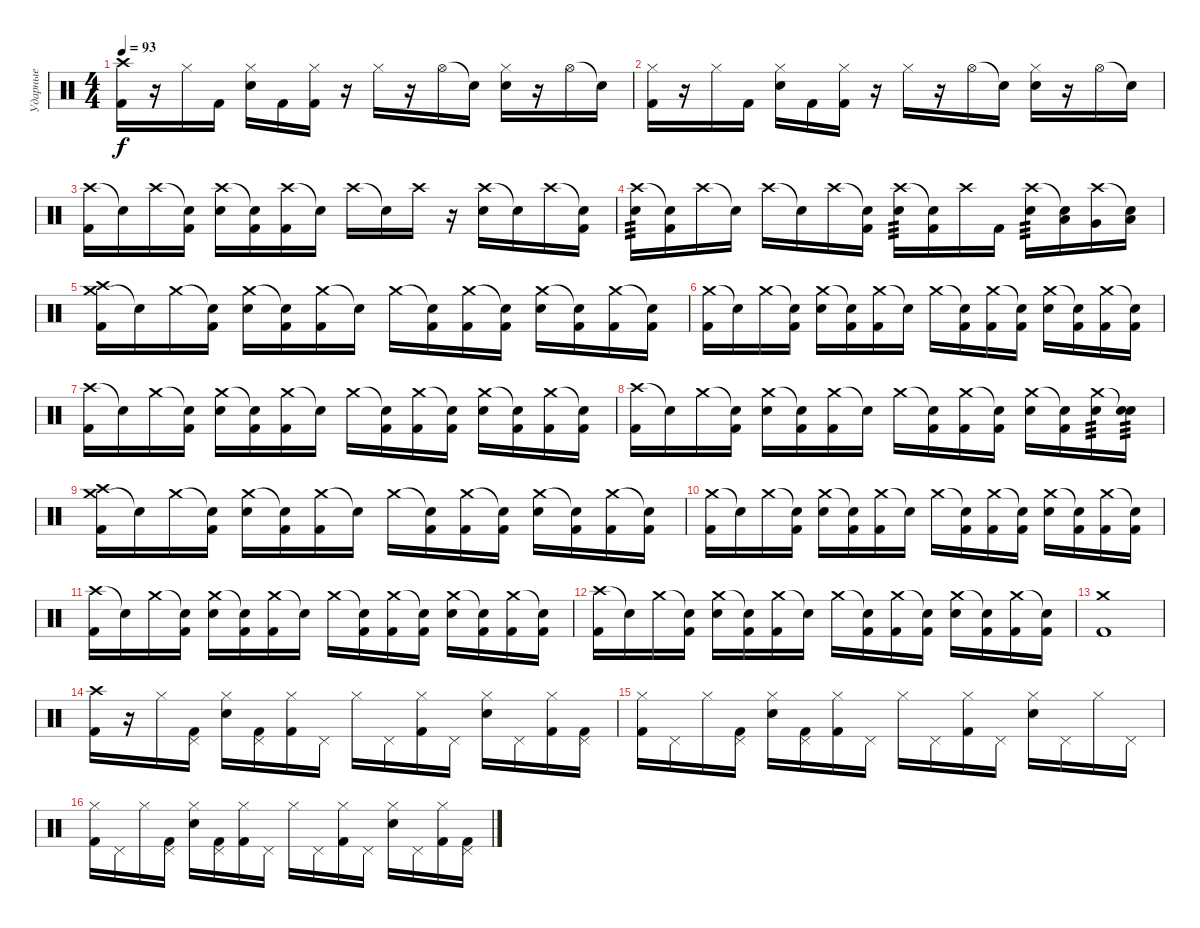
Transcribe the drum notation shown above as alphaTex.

\track ("Ударные" "Ударные") {instrument percussion}
\staff {score}
\articulation defaults
\ts (4 4)
\tempo 93
\clef neutral
\ks c
("Crash high (hit)" "Kick (hit) 2").16{dy f} r.16 "Hi-Hat (closed)".16 "Kick (hit) 2".16 ("Hi-Hat (closed)" "Electric Snare (hit)").16 "Kick (hit) 2".16 ("Hi-Hat (closed)" "Kick (hit) 2").16 r.16 "Hi-Hat (closed)".16 r.16 "Hi-Hat (open)".16 "Snare (hit)"{t}.16 ("Hi-Hat (closed)" "Electric Snare (hit)").16 r.16 "Hi-Hat (open)".16 "Snare (hit)"{t}.16 |
("Hi-Hat (closed)" "Kick (hit) 2").16 r.16 "Hi-Hat (closed)".16 "Kick (hit) 2".16 ("Hi-Hat (closed)" "Electric Snare (hit)").16 "Kick (hit) 2".16 ("Hi-Hat (closed)" "Kick (hit) 2").16 r.16 "Hi-Hat (closed)".16 r.16 "Hi-Hat (open)".16 "Snare (hit)"{t}.16 ("Hi-Hat (closed)" "Electric Snare (hit)").16 r.16 "Hi-Hat (open)".16 "Snare (hit)"{t}.16 |
("Crash high (hit)" "Kick (hit) 2").16 "Snare (hit)"{t}.16 "Crash high (hit)".16 ("Snare (hit)"{t} "Kick (hit) 2").16 ("Crash high (hit)" "Electric Snare (hit)").16 ("Snare (hit)"{t} "Kick (hit) 2").16 ("Crash high (hit)" "Kick (hit) 2").16 "Snare (hit)"{t}.16 "Crash high (hit)".16 "Snare (hit)"{t}.16 "Crash high (hit)".16 r.16 ("Crash high (hit)" "Electric Snare (hit)").16 "Snare (hit)"{t}.16 "Crash high (hit)".16 ("Snare (hit)"{t} "Kick (hit) 2").16 |
("Crash high (hit)" "Electric Snare (hit)").16{tp 3} ("Snare (hit)"{t} "Kick (hit) 2").16 "Crash high (hit)".16 "Snare (hit)"{t}.16 "Crash high (hit)".16 "Snare (hit)"{t}.16 "Crash high (hit)".16 ("Snare (hit)"{t} "Kick (hit) 2").16 ("Crash high (hit)" "Electric Snare (hit)").16{tp 3} ("Snare (hit)"{t} "Kick (hit) 2").16 "Crash high (hit)".16 "Kick (hit) 2".16 ("Crash high (hit)" "Electric Snare (hit)").16{tp 3} ("Snare (hit)"{t} "Low Tom (hit)").16 ("Crash high (hit)" "Very Low Tom (hit)").16 ("Snare (hit)"{t} "Low Floor Tom (hit)").16 |
("Crash medium (hit)" "Crash high (hit)" "Kick (hit) 2").16 "Snare (hit)"{t}.16 "Crash medium (hit)".16 ("Snare (hit)"{t} "Kick (hit) 2").16 ("Crash medium (hit)" "Electric Snare (hit)").16 ("Snare (hit)"{t} "Kick (hit) 2").16 ("Crash medium (hit)" "Kick (hit) 2").16 "Snare (hit)"{t}.16 "Crash medium (hit)".16 ("Snare (hit)"{t} "Kick (hit) 2").16 ("Crash medium (hit)" "Kick (hit) 2").16 ("Snare (hit)"{t} "Kick (hit) 2").16 ("Crash medium (hit)" "Electric Snare (hit)").16 ("Snare (hit)"{t} "Kick (hit) 2").16 ("Crash medium (hit)" "Kick (hit) 2").16 ("Snare (hit)"{t} "Kick (hit) 2").16 |
("Crash medium (hit)" "Kick (hit) 2").16 "Snare (hit)"{t}.16 "Crash medium (hit)".16 ("Snare (hit)"{t} "Kick (hit) 2").16 ("Crash medium (hit)" "Electric Snare (hit)").16 ("Snare (hit)"{t} "Kick (hit) 2").16 ("Crash medium (hit)" "Kick (hit) 2").16 "Snare (hit)"{t}.16 "Crash medium (hit)".16 ("Snare (hit)"{t} "Kick (hit) 2").16 ("Crash medium (hit)" "Kick (hit) 2").16 ("Snare (hit)"{t} "Kick (hit) 2").16 ("Crash medium (hit)" "Electric Snare (hit)").16 ("Snare (hit)"{t} "Kick (hit) 2").16 ("Crash medium (hit)" "Kick (hit) 2").16 ("Snare (hit)"{t} "Kick (hit) 2").16 |
("Crash high (hit)" "Kick (hit) 2").16 "Snare (hit)"{t}.16 "Crash medium (hit)".16 ("Snare (hit)"{t} "Kick (hit) 2").16 ("Crash medium (hit)" "Electric Snare (hit)").16 ("Snare (hit)"{t} "Kick (hit) 2").16 ("Crash medium (hit)" "Kick (hit) 2").16 "Snare (hit)"{t}.16 "Crash medium (hit)".16 ("Snare (hit)"{t} "Kick (hit) 2").16 ("Crash medium (hit)" "Kick (hit) 2").16 ("Snare (hit)"{t} "Kick (hit) 2").16 ("Crash medium (hit)" "Electric Snare (hit)").16 ("Snare (hit)"{t} "Kick (hit) 2").16 ("Crash medium (hit)" "Kick (hit) 2").16 ("Snare (hit)"{t} "Kick (hit) 2").16 |
("Crash high (hit)" "Kick (hit) 2").16 "Snare (hit)"{t}.16 "Crash medium (hit)".16 ("Snare (hit)"{t} "Kick (hit) 2").16 ("Crash medium (hit)" "Electric Snare (hit)").16 ("Snare (hit)"{t} "Kick (hit) 2").16 ("Crash medium (hit)" "Kick (hit) 2").16 "Snare (hit)"{t}.16 "Crash medium (hit)".16 ("Snare (hit)"{t} "Kick (hit) 2").16 ("Crash medium (hit)" "Kick (hit) 2").16 ("Snare (hit)"{t} "Kick (hit) 2").16 ("Crash medium (hit)" "Electric Snare (hit)").16 ("Snare (hit)"{t} "Kick (hit) 2").16 ("Crash medium (hit)" "Electric Snare (hit)").16{tp 3} ("Snare (hit)"{t} "Electric Snare (hit)").16{tp 3} |
("Crash medium (hit)" "Crash high (hit)" "Kick (hit) 2").16 "Snare (hit)"{t}.16 "Crash medium (hit)".16 ("Snare (hit)"{t} "Kick (hit) 2").16 ("Crash medium (hit)" "Electric Snare (hit)").16 ("Snare (hit)"{t} "Kick (hit) 2").16 ("Crash medium (hit)" "Kick (hit) 2").16 "Snare (hit)"{t}.16 "Crash medium (hit)".16 ("Snare (hit)"{t} "Kick (hit) 2").16 ("Crash medium (hit)" "Kick (hit) 2").16 ("Snare (hit)"{t} "Kick (hit) 2").16 ("Crash medium (hit)" "Electric Snare (hit)").16 ("Snare (hit)"{t} "Kick (hit) 2").16 ("Crash medium (hit)" "Kick (hit) 2").16 ("Snare (hit)"{t} "Kick (hit) 2").16 |
("Crash medium (hit)" "Kick (hit) 2").16 "Snare (hit)"{t}.16 "Crash medium (hit)".16 ("Snare (hit)"{t} "Kick (hit) 2").16 ("Crash medium (hit)" "Electric Snare (hit)").16 ("Snare (hit)"{t} "Kick (hit) 2").16 ("Crash medium (hit)" "Kick (hit) 2").16 "Snare (hit)"{t}.16 "Crash medium (hit)".16 ("Snare (hit)"{t} "Kick (hit) 2").16 ("Crash medium (hit)" "Kick (hit) 2").16 ("Snare (hit)"{t} "Kick (hit) 2").16 ("Crash medium (hit)" "Electric Snare (hit)").16 ("Snare (hit)"{t} "Kick (hit) 2").16 ("Crash medium (hit)" "Kick (hit) 2").16 ("Snare (hit)"{t} "Kick (hit) 2").16 |
("Crash high (hit)" "Kick (hit) 2").16 "Snare (hit)"{t}.16 "Crash medium (hit)".16 ("Snare (hit)"{t} "Kick (hit) 2").16 ("Crash medium (hit)" "Electric Snare (hit)").16 ("Snare (hit)"{t} "Kick (hit) 2").16 ("Crash medium (hit)" "Kick (hit) 2").16 "Snare (hit)"{t}.16 "Crash medium (hit)".16 ("Snare (hit)"{t} "Kick (hit) 2").16 ("Crash medium (hit)" "Kick (hit) 2").16 ("Snare (hit)"{t} "Kick (hit) 2").16 ("Crash medium (hit)" "Electric Snare (hit)").16 ("Snare (hit)"{t} "Kick (hit) 2").16 ("Crash medium (hit)" "Kick (hit) 2").16 ("Snare (hit)"{t} "Kick (hit) 2").16 |
("Crash high (hit)" "Kick (hit) 2").16 "Snare (hit)"{t}.16 "Crash medium (hit)".16 ("Snare (hit)"{t} "Kick (hit) 2").16 ("Crash medium (hit)" "Electric Snare (hit)").16 ("Snare (hit)"{t} "Kick (hit) 2").16 ("Crash medium (hit)" "Kick (hit) 2").16 "Snare (hit)"{t}.16 "Crash medium (hit)".16 ("Snare (hit)"{t} "Kick (hit) 2").16 ("Crash medium (hit)" "Kick (hit) 2").16 ("Snare (hit)"{t} "Kick (hit) 2").16 ("Crash medium (hit)" "Electric Snare (hit)").16 ("Snare (hit)"{t} "Kick (hit) 2").16 ("Crash medium (hit)" "Kick (hit) 2").16 ("Snare (hit)"{t} "Kick (hit) 2").16 |
("Crash medium (hit)" "Kick (hit) 2").1 |
("Crash high (hit)" "Kick (hit) 2").16 r.16 "Hi-Hat (closed)".16 ("Pedal Hi-Hat (hit)" "Kick (hit) 2").16 ("Hi-Hat (closed)" "Electric Snare (hit)").16 ("Pedal Hi-Hat (hit)" "Kick (hit) 2").16 ("Hi-Hat (closed)" "Kick (hit) 2").16 "Pedal Hi-Hat (hit)".16 "Hi-Hat (closed)".16 "Pedal Hi-Hat (hit)".16 ("Hi-Hat (closed)" "Kick (hit) 2").16 "Pedal Hi-Hat (hit)".16 ("Hi-Hat (closed)" "Electric Snare (hit)").16 "Pedal Hi-Hat (hit)".16 ("Hi-Hat (closed)" "Kick (hit) 2").16 ("Pedal Hi-Hat (hit)" "Kick (hit) 2").16 |
("Hi-Hat (closed)" "Kick (hit) 2").16 "Pedal Hi-Hat (hit)".16 "Hi-Hat (closed)".16 ("Pedal Hi-Hat (hit)" "Kick (hit) 2").16 ("Hi-Hat (closed)" "Electric Snare (hit)").16 ("Pedal Hi-Hat (hit)" "Kick (hit) 2").16 ("Hi-Hat (closed)" "Kick (hit) 2").16 "Pedal Hi-Hat (hit)".16 "Hi-Hat (closed)".16 "Pedal Hi-Hat (hit)".16 ("Hi-Hat (closed)" "Kick (hit) 2").16 "Pedal Hi-Hat (hit)".16 ("Hi-Hat (closed)" "Electric Snare (hit)").16 "Pedal Hi-Hat (hit)".16 "Hi-Hat (closed)".16 "Pedal Hi-Hat (hit)".16 |
("Hi-Hat (closed)" "Kick (hit) 2").16 "Pedal Hi-Hat (hit)".16 "Hi-Hat (closed)".16 ("Pedal Hi-Hat (hit)" "Kick (hit) 2").16 ("Hi-Hat (closed)" "Electric Snare (hit)").16 ("Pedal Hi-Hat (hit)" "Kick (hit) 2").16 ("Hi-Hat (closed)" "Kick (hit) 2").16 "Pedal Hi-Hat (hit)".16 "Hi-Hat (closed)".16 "Pedal Hi-Hat (hit)".16 ("Hi-Hat (closed)" "Kick (hit) 2").16 "Pedal Hi-Hat (hit)".16 ("Hi-Hat (closed)" "Electric Snare (hit)").16 "Pedal Hi-Hat (hit)".16 ("Hi-Hat (closed)" "Kick (hit) 2").16 ("Pedal Hi-Hat (hit)" "Kick (hit) 2").16
